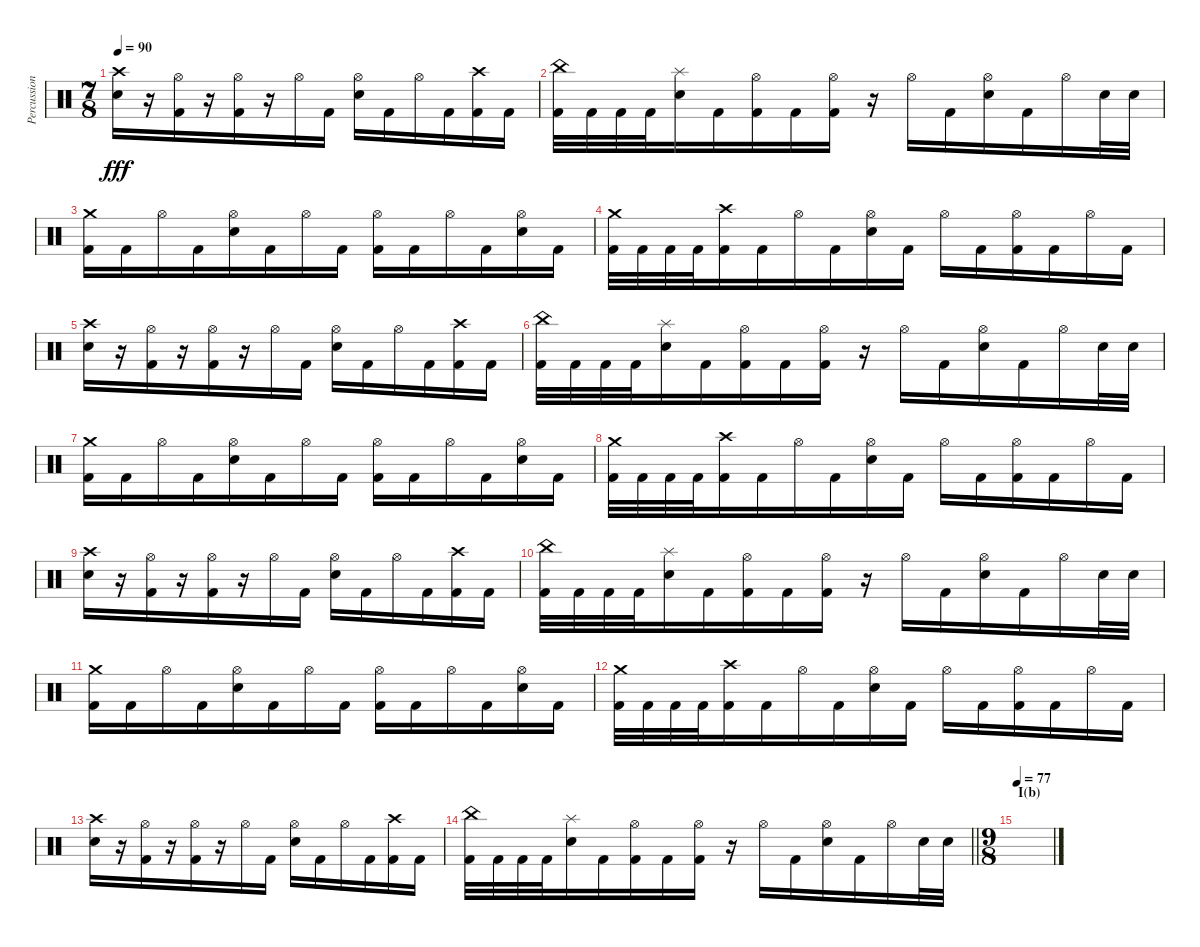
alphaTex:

\track ("Percussion" "Percussion") {instrument percussion}
\staff {score}
\articulation defaults
\ts (7 8)
\tempo 90
\clef neutral
\ks c
("Crash high (hit)" "Snare (hit) 2").16{dy fff} r.16 ("Hi-Hat (open)" "Kick (hit) 2").16 r.16 ("Hi-Hat (open)" "Kick (hit) 2").16 r.16 "Hi-Hat (open)".16 "Kick (hit) 2".16 ("Hi-Hat (open)" "Snare (hit) 2").16 "Kick (hit) 2".16 "Hi-Hat (open)".16 "Kick (hit) 2".16 ("Crash high (hit)" "Kick (hit) 2").16 "Kick (hit) 2".16 |
("China (hit)" "Kick (hit) 2").32 "Kick (hit) 2".32 "Kick (hit) 2".32 "Kick (hit) 2".32 ("Splash (hit)" "Snare (hit) 2").16 "Kick (hit) 2".16 ("Hi-Hat (open)" "Kick (hit) 2").16 "Kick (hit) 2".16 ("Hi-Hat (open)" "Kick (hit) 2").16 r.16 "Hi-Hat (open)".16 "Kick (hit) 2".16 ("Hi-Hat (open)" "Snare (hit) 2").16 "Kick (hit) 2".16 "Hi-Hat (open)".16 "Snare (hit) 2".32 "Snare (hit) 2".32 |
("Crash medium (hit)" "Kick (hit) 2").16 "Kick (hit) 2".16 "Hi-Hat (open)".16 "Kick (hit) 2".16 ("Hi-Hat (open)" "Snare (hit) 2").16 "Kick (hit) 2".16 "Hi-Hat (open)".16 "Kick (hit) 2".16 ("Hi-Hat (open)" "Kick (hit) 2").16 "Kick (hit) 2".16 "Hi-Hat (open)".16 "Kick (hit) 2".16 ("Hi-Hat (open)" "Snare (hit) 2").16 "Kick (hit) 2".16 |
("Crash medium (hit)" "Kick (hit) 2").32 "Kick (hit) 2".32 "Kick (hit) 2".32 "Kick (hit) 2".32 ("Crash high (hit)" "Kick (hit) 2").16 "Kick (hit) 2".16 "Hi-Hat (open)".16 "Kick (hit) 2".16 ("Hi-Hat (open)" "Snare (hit) 2").16 "Kick (hit) 2".16 "Hi-Hat (open)".16 "Kick (hit) 2".16 ("Hi-Hat (open)" "Kick (hit) 2").16 "Kick (hit) 2".16 "Hi-Hat (open)".16 "Kick (hit) 2".16 |
("Crash high (hit)" "Snare (hit) 2").16 r.16 ("Hi-Hat (open)" "Kick (hit) 2").16 r.16 ("Hi-Hat (open)" "Kick (hit) 2").16 r.16 "Hi-Hat (open)".16 "Kick (hit) 2".16 ("Hi-Hat (open)" "Snare (hit) 2").16 "Kick (hit) 2".16 "Hi-Hat (open)".16 "Kick (hit) 2".16 ("Crash high (hit)" "Kick (hit) 2").16 "Kick (hit) 2".16 |
("China (hit)" "Kick (hit) 2").32 "Kick (hit) 2".32 "Kick (hit) 2".32 "Kick (hit) 2".32 ("Splash (hit)" "Snare (hit) 2").16 "Kick (hit) 2".16 ("Hi-Hat (open)" "Kick (hit) 2").16 "Kick (hit) 2".16 ("Hi-Hat (open)" "Kick (hit) 2").16 r.16 "Hi-Hat (open)".16 "Kick (hit) 2".16 ("Hi-Hat (open)" "Snare (hit) 2").16 "Kick (hit) 2".16 "Hi-Hat (open)".16 "Snare (hit) 2".32 "Snare (hit) 2".32 |
("Crash medium (hit)" "Kick (hit) 2").16 "Kick (hit) 2".16 "Hi-Hat (open)".16 "Kick (hit) 2".16 ("Hi-Hat (open)" "Snare (hit) 2").16 "Kick (hit) 2".16 "Hi-Hat (open)".16 "Kick (hit) 2".16 ("Hi-Hat (open)" "Kick (hit) 2").16 "Kick (hit) 2".16 "Hi-Hat (open)".16 "Kick (hit) 2".16 ("Hi-Hat (open)" "Snare (hit) 2").16 "Kick (hit) 2".16 |
("Crash medium (hit)" "Kick (hit) 2").32 "Kick (hit) 2".32 "Kick (hit) 2".32 "Kick (hit) 2".32 ("Crash high (hit)" "Kick (hit) 2").16 "Kick (hit) 2".16 "Hi-Hat (open)".16 "Kick (hit) 2".16 ("Hi-Hat (open)" "Snare (hit) 2").16 "Kick (hit) 2".16 "Hi-Hat (open)".16 "Kick (hit) 2".16 ("Hi-Hat (open)" "Kick (hit) 2").16 "Kick (hit) 2".16 "Hi-Hat (open)".16 "Kick (hit) 2".16 |
("Crash high (hit)" "Snare (hit) 2").16 r.16 ("Hi-Hat (open)" "Kick (hit) 2").16 r.16 ("Hi-Hat (open)" "Kick (hit) 2").16 r.16 "Hi-Hat (open)".16 "Kick (hit) 2".16 ("Hi-Hat (open)" "Snare (hit) 2").16 "Kick (hit) 2".16 "Hi-Hat (open)".16 "Kick (hit) 2".16 ("Crash high (hit)" "Kick (hit) 2").16 "Kick (hit) 2".16 |
("China (hit)" "Kick (hit) 2").32 "Kick (hit) 2".32 "Kick (hit) 2".32 "Kick (hit) 2".32 ("Splash (hit)" "Snare (hit) 2").16 "Kick (hit) 2".16 ("Hi-Hat (open)" "Kick (hit) 2").16 "Kick (hit) 2".16 ("Hi-Hat (open)" "Kick (hit) 2").16 r.16 "Hi-Hat (open)".16 "Kick (hit) 2".16 ("Hi-Hat (open)" "Snare (hit) 2").16 "Kick (hit) 2".16 "Hi-Hat (open)".16 "Snare (hit) 2".32 "Snare (hit) 2".32 |
("Crash medium (hit)" "Kick (hit) 2").16 "Kick (hit) 2".16 "Hi-Hat (open)".16 "Kick (hit) 2".16 ("Hi-Hat (open)" "Snare (hit) 2").16 "Kick (hit) 2".16 "Hi-Hat (open)".16 "Kick (hit) 2".16 ("Hi-Hat (open)" "Kick (hit) 2").16 "Kick (hit) 2".16 "Hi-Hat (open)".16 "Kick (hit) 2".16 ("Hi-Hat (open)" "Snare (hit) 2").16 "Kick (hit) 2".16 |
("Crash medium (hit)" "Kick (hit) 2").32 "Kick (hit) 2".32 "Kick (hit) 2".32 "Kick (hit) 2".32 ("Crash high (hit)" "Kick (hit) 2").16 "Kick (hit) 2".16 "Hi-Hat (open)".16 "Kick (hit) 2".16 ("Hi-Hat (open)" "Snare (hit) 2").16 "Kick (hit) 2".16 "Hi-Hat (open)".16 "Kick (hit) 2".16 ("Hi-Hat (open)" "Kick (hit) 2").16 "Kick (hit) 2".16 "Hi-Hat (open)".16 "Kick (hit) 2".16 |
("Crash high (hit)" "Snare (hit) 2").16 r.16 ("Hi-Hat (open)" "Kick (hit) 2").16 r.16 ("Hi-Hat (open)" "Kick (hit) 2").16 r.16 "Hi-Hat (open)".16 "Kick (hit) 2".16 ("Hi-Hat (open)" "Snare (hit) 2").16 "Kick (hit) 2".16 "Hi-Hat (open)".16 "Kick (hit) 2".16 ("Crash high (hit)" "Kick (hit) 2").16 "Kick (hit) 2".16 |
\barLineRight lightlight
("China (hit)" "Kick (hit) 2").32 "Kick (hit) 2".32 "Kick (hit) 2".32 "Kick (hit) 2".32 ("Splash (hit)" "Snare (hit) 2").16 "Kick (hit) 2".16 ("Hi-Hat (open)" "Kick (hit) 2").16 "Kick (hit) 2".16 ("Hi-Hat (open)" "Kick (hit) 2").16 r.16 "Hi-Hat (open)".16 "Kick (hit) 2".16 ("Hi-Hat (open)" "Snare (hit) 2").16 "Kick (hit) 2".16 "Hi-Hat (open)".16 "Snare (hit) 2".32 "Snare (hit) 2".32 |
\ts (9 8)
\section ("" "I(b)")
\tempo 77
